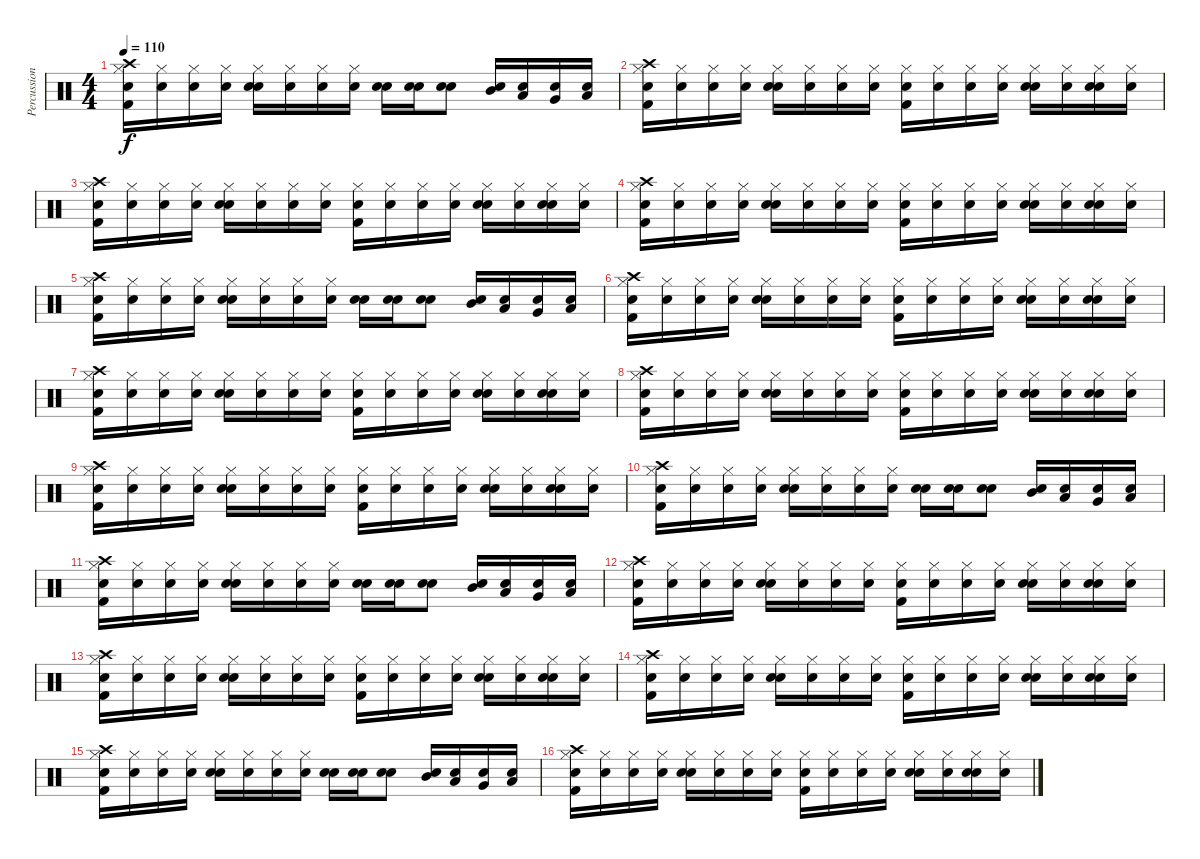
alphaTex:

\track ("Percussion" "Percussion") {instrument percussion}
\staff {score}
\articulation defaults
\ts (4 4)
\tempo 110
\clef neutral
\ks c
("Snare (hit)" "Kick (hit) 2" "Hi-Hat (closed)" "Crash high (hit)").16{dy f} ("Snare (hit)" "Hi-Hat (closed)").16 ("Snare (hit)" "Hi-Hat (closed)").16 ("Snare (hit)" "Hi-Hat (closed)").16 ("Snare (hit)" "Snare (hit) 2" "Hi-Hat (closed)").16 ("Snare (hit)" "Hi-Hat (closed)").16 ("Snare (hit)" "Hi-Hat (closed)").16 ("Snare (hit)" "Hi-Hat (closed)").16 ("Snare (hit)" "Snare (hit) 2").16 ("Snare (hit)" "Snare (hit) 2").16 ("Snare (hit)" "Snare (hit) 2").8 ("Snare (hit)" "Mid Tom (hit)").16 ("Snare (hit)" "Low Tom (hit)").16 ("Snare (hit)" "Very Low Tom (hit)").16 ("Snare (hit)" "Low Floor Tom (hit)").16 |
("Snare (hit)" "Kick (hit) 2" "Hi-Hat (closed)" "Crash high (hit)").16 ("Snare (hit)" "Hi-Hat (closed)").16 ("Snare (hit)" "Hi-Hat (closed)").16 ("Snare (hit)" "Hi-Hat (closed)").16 ("Snare (hit)" "Snare (hit) 2" "Hi-Hat (closed)").16 ("Snare (hit)" "Hi-Hat (closed)").16 ("Snare (hit)" "Hi-Hat (closed)").16 ("Snare (hit)" "Hi-Hat (closed)").16 ("Snare (hit)" "Kick (hit) 2" "Hi-Hat (closed)").16 ("Snare (hit)" "Hi-Hat (closed)").16 ("Snare (hit)" "Hi-Hat (closed)").16 ("Snare (hit)" "Hi-Hat (closed)").16 ("Snare (hit)" "Snare (hit) 2" "Hi-Hat (closed)").16 ("Snare (hit)" "Hi-Hat (closed)").16 ("Snare (hit)" "Snare (hit) 2" "Hi-Hat (closed)").16 ("Snare (hit)" "Hi-Hat (closed)").16 |
("Snare (hit)" "Kick (hit) 2" "Hi-Hat (closed)" "Crash high (hit)").16 ("Snare (hit)" "Hi-Hat (closed)").16 ("Snare (hit)" "Hi-Hat (closed)").16 ("Snare (hit)" "Hi-Hat (closed)").16 ("Snare (hit)" "Snare (hit) 2" "Hi-Hat (closed)").16 ("Snare (hit)" "Hi-Hat (closed)").16 ("Snare (hit)" "Hi-Hat (closed)").16 ("Snare (hit)" "Hi-Hat (closed)").16 ("Snare (hit)" "Kick (hit) 2" "Hi-Hat (closed)").16 ("Snare (hit)" "Hi-Hat (closed)").16 ("Snare (hit)" "Hi-Hat (closed)").16 ("Snare (hit)" "Hi-Hat (closed)").16 ("Snare (hit)" "Snare (hit) 2" "Hi-Hat (closed)").16 ("Snare (hit)" "Hi-Hat (closed)").16 ("Snare (hit)" "Snare (hit) 2" "Hi-Hat (closed)").16 ("Snare (hit)" "Hi-Hat (closed)").16 |
("Snare (hit)" "Kick (hit) 2" "Hi-Hat (closed)" "Crash high (hit)").16 ("Snare (hit)" "Hi-Hat (closed)").16 ("Snare (hit)" "Hi-Hat (closed)").16 ("Snare (hit)" "Hi-Hat (closed)").16 ("Snare (hit)" "Snare (hit) 2" "Hi-Hat (closed)").16 ("Snare (hit)" "Hi-Hat (closed)").16 ("Snare (hit)" "Hi-Hat (closed)").16 ("Snare (hit)" "Hi-Hat (closed)").16 ("Snare (hit)" "Kick (hit) 2" "Hi-Hat (closed)").16 ("Snare (hit)" "Hi-Hat (closed)").16 ("Snare (hit)" "Hi-Hat (closed)").16 ("Snare (hit)" "Hi-Hat (closed)").16 ("Snare (hit)" "Snare (hit) 2" "Hi-Hat (closed)").16 ("Snare (hit)" "Hi-Hat (closed)").16 ("Snare (hit)" "Snare (hit) 2" "Hi-Hat (closed)").16 ("Snare (hit)" "Hi-Hat (closed)").16 |
("Snare (hit)" "Kick (hit) 2" "Hi-Hat (closed)" "Crash high (hit)").16 ("Snare (hit)" "Hi-Hat (closed)").16 ("Snare (hit)" "Hi-Hat (closed)").16 ("Snare (hit)" "Hi-Hat (closed)").16 ("Snare (hit)" "Snare (hit) 2" "Hi-Hat (closed)").16 ("Snare (hit)" "Hi-Hat (closed)").16 ("Snare (hit)" "Hi-Hat (closed)").16 ("Snare (hit)" "Hi-Hat (closed)").16 ("Snare (hit)" "Snare (hit) 2").16 ("Snare (hit)" "Snare (hit) 2").16 ("Snare (hit)" "Snare (hit) 2").8 ("Snare (hit)" "Mid Tom (hit)").16 ("Snare (hit)" "Low Tom (hit)").16 ("Snare (hit)" "Very Low Tom (hit)").16 ("Snare (hit)" "Low Floor Tom (hit)").16 |
("Snare (hit)" "Kick (hit) 2" "Hi-Hat (closed)" "Crash high (hit)").16 ("Snare (hit)" "Hi-Hat (closed)").16 ("Snare (hit)" "Hi-Hat (closed)").16 ("Snare (hit)" "Hi-Hat (closed)").16 ("Snare (hit)" "Snare (hit) 2" "Hi-Hat (closed)").16 ("Snare (hit)" "Hi-Hat (closed)").16 ("Snare (hit)" "Hi-Hat (closed)").16 ("Snare (hit)" "Hi-Hat (closed)").16 ("Snare (hit)" "Kick (hit) 2" "Hi-Hat (closed)").16 ("Snare (hit)" "Hi-Hat (closed)").16 ("Snare (hit)" "Hi-Hat (closed)").16 ("Snare (hit)" "Hi-Hat (closed)").16 ("Snare (hit)" "Snare (hit) 2" "Hi-Hat (closed)").16 ("Snare (hit)" "Hi-Hat (closed)").16 ("Snare (hit)" "Snare (hit) 2" "Hi-Hat (closed)").16 ("Snare (hit)" "Hi-Hat (closed)").16 |
("Snare (hit)" "Kick (hit) 2" "Hi-Hat (closed)" "Crash high (hit)").16 ("Snare (hit)" "Hi-Hat (closed)").16 ("Snare (hit)" "Hi-Hat (closed)").16 ("Snare (hit)" "Hi-Hat (closed)").16 ("Snare (hit)" "Snare (hit) 2" "Hi-Hat (closed)").16 ("Snare (hit)" "Hi-Hat (closed)").16 ("Snare (hit)" "Hi-Hat (closed)").16 ("Snare (hit)" "Hi-Hat (closed)").16 ("Snare (hit)" "Kick (hit) 2" "Hi-Hat (closed)").16 ("Snare (hit)" "Hi-Hat (closed)").16 ("Snare (hit)" "Hi-Hat (closed)").16 ("Snare (hit)" "Hi-Hat (closed)").16 ("Snare (hit)" "Snare (hit) 2" "Hi-Hat (closed)").16 ("Snare (hit)" "Hi-Hat (closed)").16 ("Snare (hit)" "Snare (hit) 2" "Hi-Hat (closed)").16 ("Snare (hit)" "Hi-Hat (closed)").16 |
("Snare (hit)" "Kick (hit) 2" "Hi-Hat (closed)" "Crash high (hit)").16 ("Snare (hit)" "Hi-Hat (closed)").16 ("Snare (hit)" "Hi-Hat (closed)").16 ("Snare (hit)" "Hi-Hat (closed)").16 ("Snare (hit)" "Snare (hit) 2" "Hi-Hat (closed)").16 ("Snare (hit)" "Hi-Hat (closed)").16 ("Snare (hit)" "Hi-Hat (closed)").16 ("Snare (hit)" "Hi-Hat (closed)").16 ("Snare (hit)" "Kick (hit) 2" "Hi-Hat (closed)").16 ("Snare (hit)" "Hi-Hat (closed)").16 ("Snare (hit)" "Hi-Hat (closed)").16 ("Snare (hit)" "Hi-Hat (closed)").16 ("Snare (hit)" "Snare (hit) 2" "Hi-Hat (closed)").16 ("Snare (hit)" "Hi-Hat (closed)").16 ("Snare (hit)" "Snare (hit) 2" "Hi-Hat (closed)").16 ("Snare (hit)" "Hi-Hat (closed)").16 |
("Snare (hit)" "Kick (hit) 2" "Hi-Hat (closed)" "Crash high (hit)").16 ("Snare (hit)" "Hi-Hat (closed)").16 ("Snare (hit)" "Hi-Hat (closed)").16 ("Snare (hit)" "Hi-Hat (closed)").16 ("Snare (hit)" "Snare (hit) 2" "Hi-Hat (closed)").16 ("Snare (hit)" "Hi-Hat (closed)").16 ("Snare (hit)" "Hi-Hat (closed)").16 ("Snare (hit)" "Hi-Hat (closed)").16 ("Snare (hit)" "Kick (hit) 2" "Hi-Hat (closed)").16 ("Snare (hit)" "Hi-Hat (closed)").16 ("Snare (hit)" "Hi-Hat (closed)").16 ("Snare (hit)" "Hi-Hat (closed)").16 ("Snare (hit)" "Snare (hit) 2" "Hi-Hat (closed)").16 ("Snare (hit)" "Hi-Hat (closed)").16 ("Snare (hit)" "Snare (hit) 2" "Hi-Hat (closed)").16 ("Snare (hit)" "Hi-Hat (closed)").16 |
("Snare (hit)" "Kick (hit) 2" "Hi-Hat (closed)" "Crash high (hit)").16 ("Snare (hit)" "Hi-Hat (closed)").16 ("Snare (hit)" "Hi-Hat (closed)").16 ("Snare (hit)" "Hi-Hat (closed)").16 ("Snare (hit)" "Snare (hit) 2" "Hi-Hat (closed)").16 ("Snare (hit)" "Hi-Hat (closed)").16 ("Snare (hit)" "Hi-Hat (closed)").16 ("Snare (hit)" "Hi-Hat (closed)").16 ("Snare (hit)" "Snare (hit) 2").16 ("Snare (hit)" "Snare (hit) 2").16 ("Snare (hit)" "Snare (hit) 2").8 ("Snare (hit)" "Mid Tom (hit)").16 ("Snare (hit)" "Low Tom (hit)").16 ("Snare (hit)" "Very Low Tom (hit)").16 ("Snare (hit)" "Low Floor Tom (hit)").16 |
("Snare (hit)" "Kick (hit) 2" "Hi-Hat (closed)" "Crash high (hit)").16 ("Snare (hit)" "Hi-Hat (closed)").16 ("Snare (hit)" "Hi-Hat (closed)").16 ("Snare (hit)" "Hi-Hat (closed)").16 ("Snare (hit)" "Snare (hit) 2" "Hi-Hat (closed)").16 ("Snare (hit)" "Hi-Hat (closed)").16 ("Snare (hit)" "Hi-Hat (closed)").16 ("Snare (hit)" "Hi-Hat (closed)").16 ("Snare (hit)" "Snare (hit) 2").16 ("Snare (hit)" "Snare (hit) 2").16 ("Snare (hit)" "Snare (hit) 2").8 ("Snare (hit)" "Mid Tom (hit)").16 ("Snare (hit)" "Low Tom (hit)").16 ("Snare (hit)" "Very Low Tom (hit)").16 ("Snare (hit)" "Low Floor Tom (hit)").16 |
("Snare (hit)" "Kick (hit) 2" "Hi-Hat (closed)" "Crash high (hit)").16 ("Snare (hit)" "Hi-Hat (closed)").16 ("Snare (hit)" "Hi-Hat (closed)").16 ("Snare (hit)" "Hi-Hat (closed)").16 ("Snare (hit)" "Snare (hit) 2" "Hi-Hat (closed)").16 ("Snare (hit)" "Hi-Hat (closed)").16 ("Snare (hit)" "Hi-Hat (closed)").16 ("Snare (hit)" "Hi-Hat (closed)").16 ("Snare (hit)" "Kick (hit) 2" "Hi-Hat (closed)").16 ("Snare (hit)" "Hi-Hat (closed)").16 ("Snare (hit)" "Hi-Hat (closed)").16 ("Snare (hit)" "Hi-Hat (closed)").16 ("Snare (hit)" "Snare (hit) 2" "Hi-Hat (closed)").16 ("Snare (hit)" "Hi-Hat (closed)").16 ("Snare (hit)" "Snare (hit) 2" "Hi-Hat (closed)").16 ("Snare (hit)" "Hi-Hat (closed)").16 |
("Snare (hit)" "Kick (hit) 2" "Hi-Hat (closed)" "Crash high (hit)").16 ("Snare (hit)" "Hi-Hat (closed)").16 ("Snare (hit)" "Hi-Hat (closed)").16 ("Snare (hit)" "Hi-Hat (closed)").16 ("Snare (hit)" "Snare (hit) 2" "Hi-Hat (closed)").16 ("Snare (hit)" "Hi-Hat (closed)").16 ("Snare (hit)" "Hi-Hat (closed)").16 ("Snare (hit)" "Hi-Hat (closed)").16 ("Snare (hit)" "Kick (hit) 2" "Hi-Hat (closed)").16 ("Snare (hit)" "Hi-Hat (closed)").16 ("Snare (hit)" "Hi-Hat (closed)").16 ("Snare (hit)" "Hi-Hat (closed)").16 ("Snare (hit)" "Snare (hit) 2" "Hi-Hat (closed)").16 ("Snare (hit)" "Hi-Hat (closed)").16 ("Snare (hit)" "Snare (hit) 2" "Hi-Hat (closed)").16 ("Snare (hit)" "Hi-Hat (closed)").16 |
("Snare (hit)" "Kick (hit) 2" "Hi-Hat (closed)" "Crash high (hit)").16 ("Snare (hit)" "Hi-Hat (closed)").16 ("Snare (hit)" "Hi-Hat (closed)").16 ("Snare (hit)" "Hi-Hat (closed)").16 ("Snare (hit)" "Snare (hit) 2" "Hi-Hat (closed)").16 ("Snare (hit)" "Hi-Hat (closed)").16 ("Snare (hit)" "Hi-Hat (closed)").16 ("Snare (hit)" "Hi-Hat (closed)").16 ("Snare (hit)" "Kick (hit) 2" "Hi-Hat (closed)").16 ("Snare (hit)" "Hi-Hat (closed)").16 ("Snare (hit)" "Hi-Hat (closed)").16 ("Snare (hit)" "Hi-Hat (closed)").16 ("Snare (hit)" "Snare (hit) 2" "Hi-Hat (closed)").16 ("Snare (hit)" "Hi-Hat (closed)").16 ("Snare (hit)" "Snare (hit) 2" "Hi-Hat (closed)").16 ("Snare (hit)" "Hi-Hat (closed)").16 |
("Snare (hit)" "Kick (hit) 2" "Hi-Hat (closed)" "Crash high (hit)").16 ("Snare (hit)" "Hi-Hat (closed)").16 ("Snare (hit)" "Hi-Hat (closed)").16 ("Snare (hit)" "Hi-Hat (closed)").16 ("Snare (hit)" "Snare (hit) 2" "Hi-Hat (closed)").16 ("Snare (hit)" "Hi-Hat (closed)").16 ("Snare (hit)" "Hi-Hat (closed)").16 ("Snare (hit)" "Hi-Hat (closed)").16 ("Snare (hit)" "Snare (hit) 2").16 ("Snare (hit)" "Snare (hit) 2").16 ("Snare (hit)" "Snare (hit) 2").8 ("Snare (hit)" "Mid Tom (hit)").16 ("Snare (hit)" "Low Tom (hit)").16 ("Snare (hit)" "Very Low Tom (hit)").16 ("Snare (hit)" "Low Floor Tom (hit)").16 |
("Snare (hit)" "Kick (hit) 2" "Hi-Hat (closed)" "Crash high (hit)").16 ("Snare (hit)" "Hi-Hat (closed)").16 ("Snare (hit)" "Hi-Hat (closed)").16 ("Snare (hit)" "Hi-Hat (closed)").16 ("Snare (hit)" "Snare (hit) 2" "Hi-Hat (closed)").16 ("Snare (hit)" "Hi-Hat (closed)").16 ("Snare (hit)" "Hi-Hat (closed)").16 ("Snare (hit)" "Hi-Hat (closed)").16 ("Snare (hit)" "Kick (hit) 2" "Hi-Hat (closed)").16 ("Snare (hit)" "Hi-Hat (closed)").16 ("Snare (hit)" "Hi-Hat (closed)").16 ("Snare (hit)" "Hi-Hat (closed)").16 ("Snare (hit)" "Snare (hit) 2" "Hi-Hat (closed)").16 ("Snare (hit)" "Hi-Hat (closed)").16 ("Snare (hit)" "Snare (hit) 2" "Hi-Hat (closed)").16 ("Snare (hit)" "Hi-Hat (closed)").16
